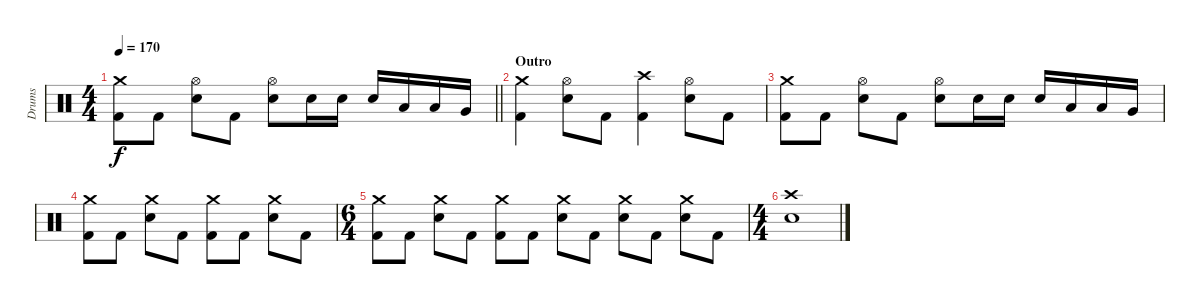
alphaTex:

\track ("Drums" "Drums") {instrument percussion}
\staff {score}
\articulation defaults
\ts (4 4)
\tempo 170
\clef neutral
\barLineRight lightlight
\ks c
("Crash medium (hit)" "Kick (hit) 2").8{dy f} "Kick (hit) 2".8 ("Hi-Hat (open)" "Electric Snare (hit)").8 "Kick (hit) 2".8 ("Hi-Hat (open)" "Electric Snare (hit)").8 "Electric Snare (hit)".16 "Electric Snare (hit)".16 "Electric Snare (hit)".16 "Low Tom (hit)".16 "Low Tom (hit)".16 "Very Low Tom (hit)".16 |
\section ("" "Outro")
("Crash medium (hit)" "Kick (hit) 2").4 ("Hi-Hat (open)" "Electric Snare (hit)").8 "Kick (hit) 2".8 ("Crash high (hit)" "Kick (hit) 2").4 ("Hi-Hat (open)" "Electric Snare (hit)").8 "Kick (hit) 2".8 |
("Crash medium (hit)" "Kick (hit) 2").8 "Kick (hit) 2".8 ("Hi-Hat (open)" "Electric Snare (hit)").8 "Kick (hit) 2".8 ("Hi-Hat (open)" "Electric Snare (hit)").8 "Electric Snare (hit)".16 "Electric Snare (hit)".16 "Electric Snare (hit)".16 "Low Tom (hit)".16 "Low Tom (hit)".16 "Very Low Tom (hit)".16 |
("Crash medium (hit)" "Kick (hit) 2").8 "Kick (hit) 2".8 ("Crash medium (hit)" "Electric Snare (hit)").8 "Kick (hit) 2".8 ("Crash medium (hit)" "Kick (hit) 2").8 "Kick (hit) 2".8 ("Crash medium (hit)" "Electric Snare (hit)").8 "Kick (hit) 2".8 |
\ts (6 4)
("Crash medium (hit)" "Kick (hit) 2").8 "Kick (hit) 2".8 ("Crash medium (hit)" "Electric Snare (hit)").8 "Kick (hit) 2".8 ("Crash medium (hit)" "Kick (hit) 2").8 "Kick (hit) 2".8 ("Crash medium (hit)" "Electric Snare (hit)").8 "Kick (hit) 2".8 ("Crash medium (hit)" "Electric Snare (hit)").8 "Kick (hit) 2".8 ("Crash medium (hit)" "Electric Snare (hit)").8 "Kick (hit) 2".8 |
\ts (4 4)
("Crash high (hit)" "Electric Snare (hit)").1
